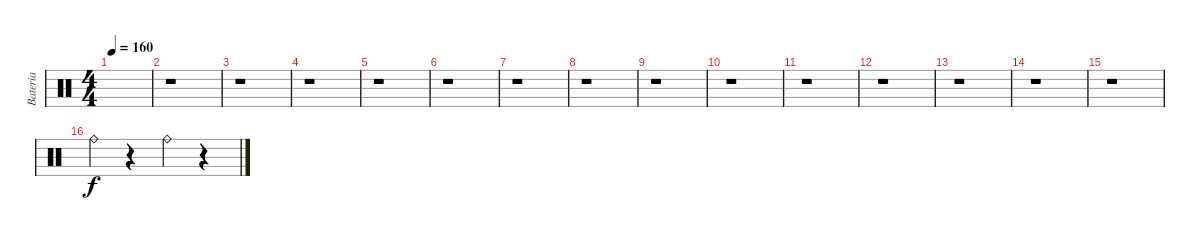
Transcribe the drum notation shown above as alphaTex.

\track ("Bateria" "Bateria") {instrument percussion}
\staff {score}
\articulation defaults
\ts (4 4)
\tempo 160
\clef neutral
\ks c
|
r.1 |
r.1 |
r.1 |
r.1 |
r.1 |
r.1 |
r.1 |
r.1 |
r.1 |
r.1 |
r.1 |
r.1 |
r.1 |
r.1 |
"Ride (bell)".4 r.4 "Ride (bell)".4 r.4
